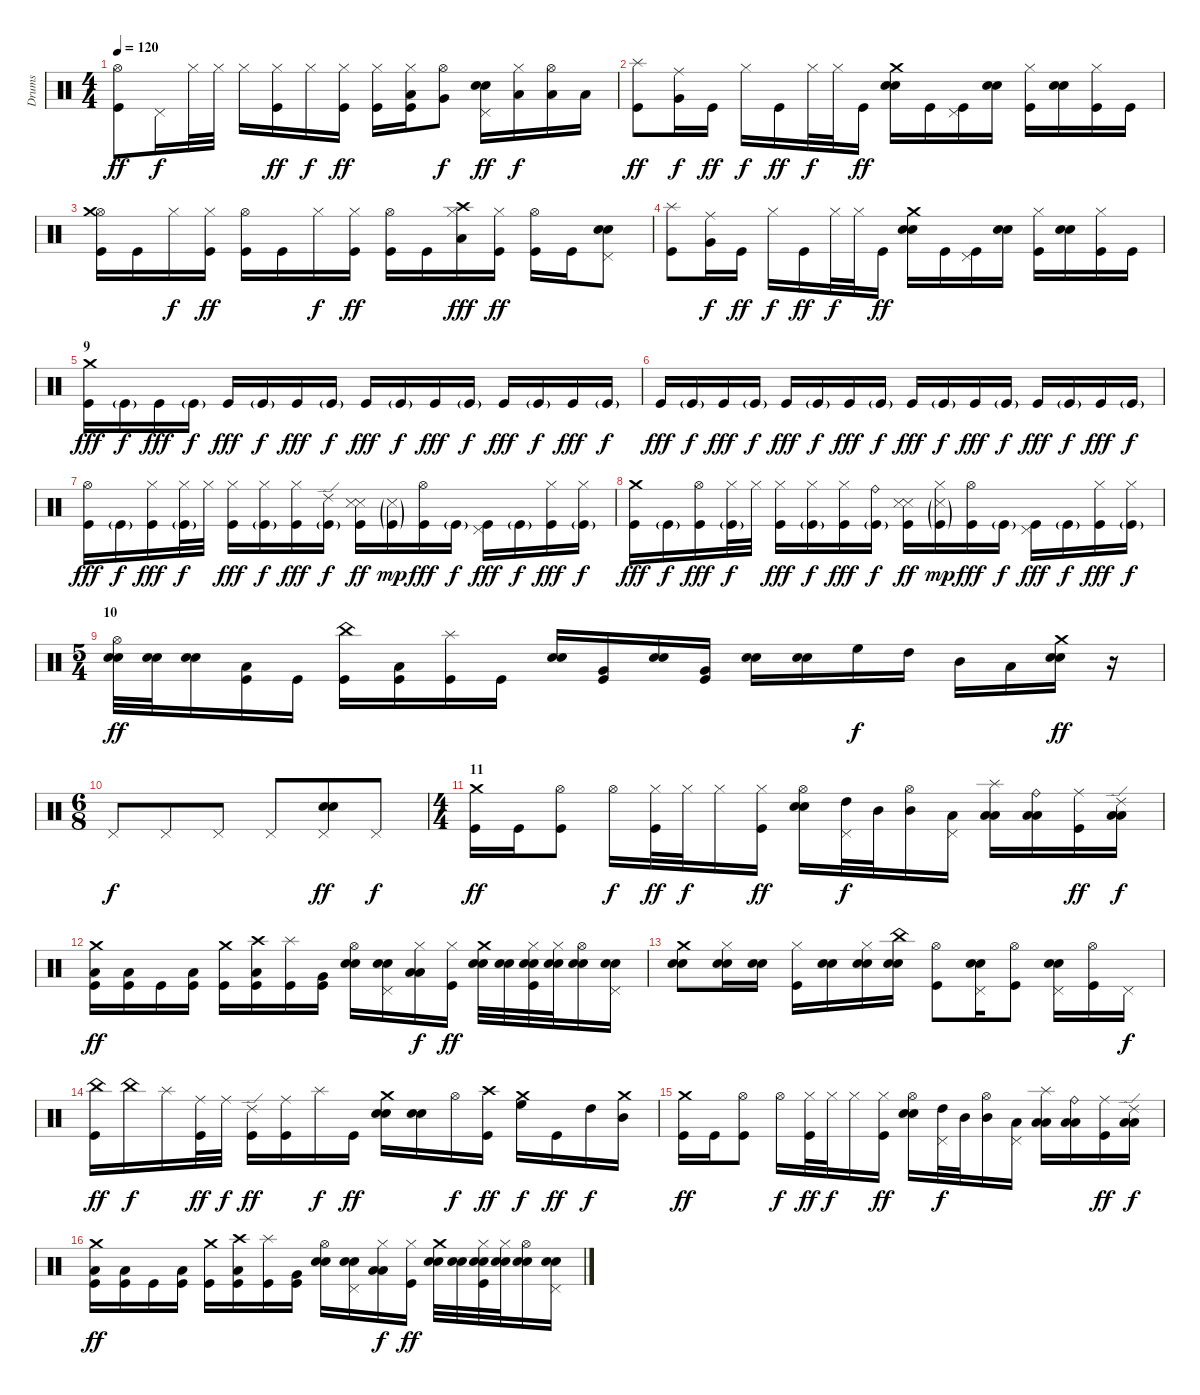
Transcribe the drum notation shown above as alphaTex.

\track ("Drums" "Drums") {instrument percussion}
\staff {score}
\articulation defaults
\ts (4 4)
\tempo 120
\clef neutral
\ks c
("Kick (hit)" "Hi-Hat (open)").8{dy ff} "Pedal Hi-Hat (hit)".16{dy f} "Hi-Hat (closed)".32 "Hi-Hat (closed)".32 "Hi-Hat (closed)".16 ("Kick (hit)" "Hi-Hat (closed)").16{dy ff} "Hi-Hat (closed)".16{dy f} ("Kick (hit)" "Hi-Hat (closed)").16{dy ff} ("Kick (hit)" "Hi-Hat (closed)").16 ("Kick (hit)" "Low Tom (hit)" "Hi-Hat (closed)").16 ("Very Low Tom (hit)" "Hi-Hat (open)").8{dy f} ("Electric Snare (hit)" "Electric Snare (hit)" "Pedal Hi-Hat (hit)").16{dy ff} ("Low Floor Tom (hit)" "Hi-Hat (closed)").16{dy f} ("Low Floor Tom (hit)" "Hi-Hat (open)").16 "Low Floor Tom (hit)".16 |
("Kick (hit)" "Splash (hit)").8{dy ff} ("Very Low Tom (hit)" "Ride (middle)").16{dy f} "Kick (hit)".16{dy ff} "Hi-Hat (closed)".16{dy f} "Kick (hit)".16{dy ff} "Hi-Hat (closed)".32{dy f} "Hi-Hat (closed)".32 "Kick (hit)".16{dy ff} ("Electric Snare (hit)" "Electric Snare (hit)" "Crash medium (hit)").16 "Kick (hit)".16 ("Kick (hit)" "Pedal Hi-Hat (hit)").16 ("Electric Snare (hit)" "Electric Snare (hit)").16 ("Kick (hit)" "Hi-Hat (closed)").16 ("Electric Snare (hit)" "Electric Snare (hit)").16 ("Kick (hit)" "Hi-Hat (closed)").16 "Kick (hit)".16 |
("Kick (hit)" "Hi-Hat (open)" "Crash medium (hit)").16 "Kick (hit)".16 "Hi-Hat (closed)".16{dy f} ("Kick (hit)" "Hi-Hat (closed)").16{dy ff} ("Kick (hit)" "Hi-Hat (open)").16 "Kick (hit)".16 "Hi-Hat (closed)".16{dy f} ("Kick (hit)" "Hi-Hat (closed)").16{dy ff} ("Kick (hit)" "Hi-Hat (open)").16 "Kick (hit)".16 ("Low Floor Tom (hit)" "Hi-Hat (closed)" "Crash high (hit)").16{dy fff} ("Kick (hit)" "Hi-Hat (closed)").16{dy ff} ("Kick (hit)" "Hi-Hat (open)").16 "Kick (hit)".16 ("Electric Snare (hit)" "Electric Snare (hit)" "Pedal Hi-Hat (hit)").8 |
("Kick (hit)" "Splash (hit)").8 ("Very Low Tom (hit)" "Ride (middle)").16{dy f} "Kick (hit)".16{dy ff} "Hi-Hat (closed)".16{dy f} "Kick (hit)".16{dy ff} "Hi-Hat (closed)".32{dy f} "Hi-Hat (closed)".32 "Kick (hit)".16{dy ff} ("Electric Snare (hit)" "Electric Snare (hit)" "Crash medium (hit)").16 "Kick (hit)".16 ("Kick (hit)" "Pedal Hi-Hat (hit)").16 ("Electric Snare (hit)" "Electric Snare (hit)").16 ("Kick (hit)" "Hi-Hat (closed)").16 ("Electric Snare (hit)" "Electric Snare (hit)").16 ("Kick (hit)" "Hi-Hat (closed)").16 "Kick (hit)".16 |
\section ("" "9")
("Kick (hit)" "Crash medium (hit)").16{dy fff volume 2} "Kick (hit)"{g}.16{dy f} "Kick (hit)".16{dy fff} "Kick (hit)"{g}.16{dy f} "Kick (hit)".16{dy fff} "Kick (hit)"{g}.16{dy f} "Kick (hit)".16{dy fff} "Kick (hit)"{g}.16{dy f} "Kick (hit)".16{dy fff} "Kick (hit)"{g}.16{dy f} "Kick (hit)".16{dy fff} "Kick (hit)"{g}.16{dy f} "Kick (hit)".16{dy fff} "Kick (hit)"{g}.16{dy f} "Kick (hit)".16{dy fff} "Kick (hit)"{g}.16{dy f} |
"Kick (hit)".16{dy fff volume 13} "Kick (hit)"{g}.16{dy f} "Kick (hit)".16{dy fff} "Kick (hit)"{g}.16{dy f} "Kick (hit)".16{dy fff} "Kick (hit)"{g}.16{dy f} "Kick (hit)".16{dy fff} "Kick (hit)"{g}.16{dy f} "Kick (hit)".16{dy fff} "Kick (hit)"{g}.16{dy f} "Kick (hit)".16{dy fff} "Kick (hit)"{g}.16{dy f} "Kick (hit)".16{dy fff} "Kick (hit)"{g}.16{dy f} "Kick (hit)".16{dy fff} "Kick (hit)"{g}.16{dy f} |
("Kick (hit)" "Hi-Hat (open)").16{dy fff} "Kick (hit)"{g}.16{dy f} ("Kick (hit)" "Hi-Hat (closed)").16{dy fff} ("Kick (hit)"{g} "Hi-Hat (closed)").32{dy f} "Hi-Hat (closed)".32 ("Kick (hit)" "Hi-Hat (closed)").16{dy fff} ("Kick (hit)"{g} "Hi-Hat (closed)").16{dy f} ("Kick (hit)" "Hi-Hat (closed)").16{dy fff} ("Kick (hit)"{g} "Ride (edge) 2").16{dy f} ("Kick (hit)" "Snare (side stick) 3" "Snare (side stick) 3").16{dy ff} ("Kick (hit)"{g} "Snare (side stick) 3"{g}).16{dy mp} ("Kick (hit)" "Hi-Hat (open)").16{dy fff} "Kick (hit)"{g}.16{dy f} ("Kick (hit)" "Pedal Hi-Hat (hit)").16{dy fff} "Kick (hit)"{g}.16{dy f} ("Kick (hit)" "Hi-Hat (closed)").16{dy fff} ("Kick (hit)"{g} "Hi-Hat (closed)").16{dy f} |
("Kick (hit)" "Crash medium (hit)").16{dy fff} "Kick (hit)"{g}.16{dy f} ("Kick (hit)" "Hi-Hat (open)").16{dy fff} ("Kick (hit)"{g} "Hi-Hat (closed)").32{dy f} "Hi-Hat (closed)".32 ("Kick (hit)" "Hi-Hat (closed)").16{dy fff} ("Kick (hit)"{g} "Hi-Hat (closed)").16{dy f} ("Kick (hit)" "Hi-Hat (closed)").16{dy fff} ("Kick (hit)"{g} "Ride (bell)").16{dy f} ("Kick (hit)" "Snare (side stick) 3" "Snare (side stick) 3").16{dy ff} ("Kick (hit)"{g} "Snare (side stick) 3"{g} "Hi-Hat (closed)").16{dy mp} ("Kick (hit)" "Hi-Hat (open)").16{dy fff} "Kick (hit)"{g}.16{dy f} ("Kick (hit)" "Pedal Hi-Hat (hit)").16{dy fff} "Kick (hit)"{g}.16{dy f} ("Kick (hit)" "Hi-Hat (closed)").16{dy fff} ("Kick (hit)"{g} "Hi-Hat (closed)").16{dy f} |
\ts (5 4)
\section ("" "10")
("Electric Snare (hit)" "Electric Snare (hit)" "Hi-Hat (open)").32{dy ff} ("Electric Snare (hit)" "Electric Snare (hit)").32 ("Electric Snare (hit)" "Electric Snare (hit)").16 ("Kick (hit)" "Low Tom (hit)").16 "Kick (hit)".16 ("Kick (hit)" "China (hit)").16 ("Kick (hit)" "Low Tom (hit)").16 ("Kick (hit)" "Splash (hit)").16 "Kick (hit)".16 ("Electric Snare (hit)" "Electric Snare (hit)").16 ("Kick (hit)" "Very Low Tom (hit)").16 ("Electric Snare (hit)" "Electric Snare (hit)").16 ("Kick (hit)" "Very Low Tom (hit)").16 ("Electric Snare (hit)" "Electric Snare (hit)").16 ("Electric Snare (hit)" "Electric Snare (hit)").16 "High Floor Tom (hit)".16{dy f} "High Tom (hit)".16 "Mid Tom (hit)".16 "Low Tom (hit)".16 ("Electric Snare (hit)" "Electric Snare (hit)" "Crash medium (hit)").16{dy ff} r.16 |
\ts (6 8)
"Pedal Hi-Hat (hit)".8{dy f} "Pedal Hi-Hat (hit)".8 "Pedal Hi-Hat (hit)".8 "Pedal Hi-Hat (hit)".8 ("Electric Snare (hit)" "Electric Snare (hit)" "Pedal Hi-Hat (hit)").8{dy ff} "Pedal Hi-Hat (hit)".8{dy f} |
\ts (4 4)
\section ("" "11")
("Kick (hit)" "Crash medium (hit)").16{dy ff} "Kick (hit)".16 ("Kick (hit)" "Hi-Hat (open)").8 "Hi-Hat (open)".16{dy f} ("Kick (hit)" "Hi-Hat (closed)").32{dy ff} "Hi-Hat (closed)".32{dy f} "Hi-Hat (closed)".16 ("Kick (hit)" "Hi-Hat (closed)").16{dy ff} ("Electric Snare (hit)" "Electric Snare (hit)" "Hi-Hat (open)").16 ("High Tom (hit)" "Pedal Hi-Hat (hit)").32{dy f} "Mid Tom (hit)".32 ("Mid Tom (hit)" "Hi-Hat (open)").16 ("Low Tom (hit)" "Pedal Hi-Hat (hit)").16 ("Low Floor Tom (hit)" "Low Floor Tom (hit)" "Splash (hit)").16 ("Low Floor Tom (hit)" "Low Floor Tom (hit)" "Ride (bell)").16 ("Kick (hit)" "Ride (middle)").16{dy ff} ("Low Floor Tom (hit)" "Low Floor Tom (hit)" "Ride (edge) 2").16{dy f} |
("Kick (hit)" "Low Tom (hit)" "Crash medium (hit)").16{dy ff} ("Kick (hit)" "Low Tom (hit)").16 "Kick (hit)".16 ("Kick (hit)" "Low Tom (hit)").16 ("Kick (hit)" "Crash medium (hit)").16 ("Kick (hit)" "Low Tom (hit)" "Crash high (hit)").16 ("Kick (hit)" "Splash (hit)").16 ("Kick (hit)" "Very Low Tom (hit)").16 ("Electric Snare (hit)" "Electric Snare (hit)" "Hi-Hat (open)").16 ("Electric Snare (hit)" "Electric Snare (hit)" "Pedal Hi-Hat (hit)").16 ("Low Floor Tom (hit)" "Low Floor Tom (hit)" "Hi-Hat (closed)").16{dy f} ("Kick (hit)" "Hi-Hat (closed)").16{dy ff} ("Electric Snare (hit)" "Electric Snare (hit)" "Crash medium (hit)").32 ("Electric Snare (hit)" "Electric Snare (hit)").32 ("Kick (hit)" "Electric Snare (hit)" "Electric Snare (hit)" "Hi-Hat (closed)").32 ("Electric Snare (hit)" "Electric Snare (hit)" "Hi-Hat (closed)").32 ("Electric Snare (hit)" "Electric Snare (hit)" "Hi-Hat (open)").16 ("Electric Snare (hit)" "Electric Snare (hit)" "Pedal Hi-Hat (hit)").16 |
("Electric Snare (hit)" "Electric Snare (hit)" "Crash medium (hit)").8 ("Electric Snare (hit)" "Electric Snare (hit)" "Hi-Hat (closed)").16 ("Electric Snare (hit)" "Electric Snare (hit)").16 ("Kick (hit)" "Hi-Hat (closed)").16 ("Electric Snare (hit)" "Electric Snare (hit)").16 ("Electric Snare (hit)" "Electric Snare (hit)" "Hi-Hat (closed)").16 ("Electric Snare (hit)" "Electric Snare (hit)" "China (hit)").16 ("Kick (hit)" "Hi-Hat (open)").8 ("Electric Snare (hit)" "Electric Snare (hit)" "Pedal Hi-Hat (hit)").16 ("Kick (hit)" "Hi-Hat (open)").8 ("Electric Snare (hit)" "Electric Snare (hit)" "Pedal Hi-Hat (hit)").16 ("Kick (hit)" "Hi-Hat (open)").16 "Pedal Hi-Hat (hit)".16{dy f} |
("Kick (hit)" "China (hit)").16{dy ff} "China (hit)".16{dy f} "Splash (hit)".16 ("Kick (hit)" "Ride (middle)").32{dy ff} "Ride (middle)".32{dy f} ("Kick (hit)" "Ride (edge) 2").16{dy ff} ("Kick (hit)" "Ride (middle)").16 "Splash (hit)".16{dy f} "Kick (hit)".16{dy ff} ("Electric Snare (hit)" "Electric Snare (hit)" "Crash medium (hit)").16 ("Electric Snare (hit)" "Electric Snare (hit)").16 "Hi-Hat (open)".16{dy f} ("Kick (hit)" "Crash high (hit)").16{dy ff} ("High Floor Tom (hit)" "Crash medium (hit)").16{dy f} "Kick (hit)".16{dy ff} "High Tom (hit)".16{dy f} ("Mid Tom (hit)" "Crash medium (hit)").16 |
("Kick (hit)" "Crash medium (hit)").16{dy ff} "Kick (hit)".16 ("Kick (hit)" "Hi-Hat (open)").8 "Hi-Hat (open)".16{dy f} ("Kick (hit)" "Hi-Hat (closed)").32{dy ff} "Hi-Hat (closed)".32{dy f} "Hi-Hat (closed)".16 ("Kick (hit)" "Hi-Hat (closed)").16{dy ff} ("Electric Snare (hit)" "Electric Snare (hit)" "Hi-Hat (open)").16 ("High Tom (hit)" "Pedal Hi-Hat (hit)").32{dy f} "Mid Tom (hit)".32 ("Mid Tom (hit)" "Hi-Hat (open)").16 ("Low Tom (hit)" "Pedal Hi-Hat (hit)").16 ("Low Floor Tom (hit)" "Low Floor Tom (hit)" "Splash (hit)").16 ("Low Floor Tom (hit)" "Low Floor Tom (hit)" "Ride (bell)").16 ("Kick (hit)" "Ride (middle)").16{dy ff} ("Low Floor Tom (hit)" "Low Floor Tom (hit)" "Ride (edge) 2").16{dy f} |
("Kick (hit)" "Low Tom (hit)" "Crash medium (hit)").16{dy ff} ("Kick (hit)" "Low Tom (hit)").16 "Kick (hit)".16 ("Kick (hit)" "Low Tom (hit)").16 ("Kick (hit)" "Crash medium (hit)").16 ("Kick (hit)" "Low Tom (hit)" "Crash high (hit)").16 ("Kick (hit)" "Splash (hit)").16 ("Kick (hit)" "Very Low Tom (hit)").16 ("Electric Snare (hit)" "Electric Snare (hit)" "Hi-Hat (open)").16 ("Electric Snare (hit)" "Electric Snare (hit)" "Pedal Hi-Hat (hit)").16 ("Low Floor Tom (hit)" "Low Floor Tom (hit)" "Hi-Hat (closed)").16{dy f} ("Kick (hit)" "Hi-Hat (closed)").16{dy ff} ("Electric Snare (hit)" "Electric Snare (hit)" "Crash medium (hit)").32 ("Electric Snare (hit)" "Electric Snare (hit)").32 ("Kick (hit)" "Electric Snare (hit)" "Electric Snare (hit)" "Hi-Hat (closed)").32 ("Electric Snare (hit)" "Electric Snare (hit)" "Hi-Hat (closed)").32 ("Electric Snare (hit)" "Electric Snare (hit)" "Hi-Hat (open)").16 ("Electric Snare (hit)" "Electric Snare (hit)" "Pedal Hi-Hat (hit)").16
